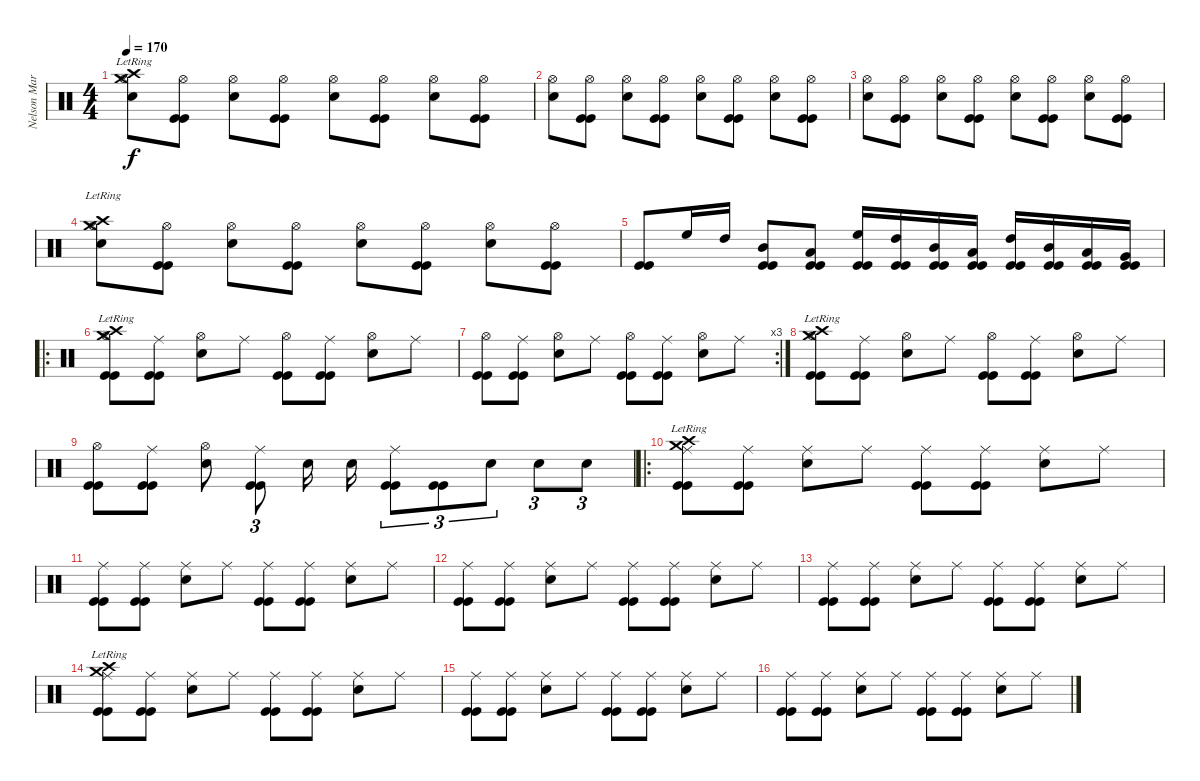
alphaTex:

\track ("Nelson Maria" "Nelson Mar") {instrument percussion}
\staff {score}
\articulation defaults
\ts (4 4)
\tempo 170
\clef neutral
\ks c
("Crash high (hit)"{lr} "Crash medium (hit)"{lr} "Snare (hit) 2" "Hi-Hat (open)").8{dy f} ("Hi-Hat (open)" "Kick (hit)" "Kick (hit)").8 ("Snare (hit) 2" "Hi-Hat (open)").8 ("Hi-Hat (open)" "Kick (hit)" "Kick (hit)").8 ("Snare (hit) 2" "Hi-Hat (open)").8 ("Hi-Hat (open)" "Kick (hit)" "Kick (hit)").8 ("Snare (hit) 2" "Hi-Hat (open)").8 ("Hi-Hat (open)" "Kick (hit)" "Kick (hit)").8 |
("Snare (hit) 2" "Hi-Hat (open)").8 ("Hi-Hat (open)" "Kick (hit)" "Kick (hit)").8 ("Snare (hit) 2" "Hi-Hat (open)").8 ("Hi-Hat (open)" "Kick (hit)" "Kick (hit)").8 ("Snare (hit) 2" "Hi-Hat (open)").8 ("Hi-Hat (open)" "Kick (hit)" "Kick (hit)").8 ("Snare (hit) 2" "Hi-Hat (open)").8 ("Hi-Hat (open)" "Kick (hit)" "Kick (hit)").8 |
("Snare (hit) 2" "Hi-Hat (open)").8 ("Hi-Hat (open)" "Kick (hit)" "Kick (hit)").8 ("Snare (hit) 2" "Hi-Hat (open)").8 ("Hi-Hat (open)" "Kick (hit)" "Kick (hit)").8 ("Snare (hit) 2" "Hi-Hat (open)").8 ("Hi-Hat (open)" "Kick (hit)" "Kick (hit)").8 ("Snare (hit) 2" "Hi-Hat (open)").8 ("Hi-Hat (open)" "Kick (hit)" "Kick (hit)").8 |
("Crash high (hit)"{lr} "Crash medium (hit)"{lr} "Snare (hit) 2" "Hi-Hat (open)").8 ("Hi-Hat (open)" "Kick (hit)" "Kick (hit)").8 ("Snare (hit) 2" "Hi-Hat (open)").8 ("Hi-Hat (open)" "Kick (hit)" "Kick (hit)").8 ("Snare (hit) 2" "Hi-Hat (open)").8 ("Hi-Hat (open)" "Kick (hit)" "Kick (hit)").8 ("Snare (hit) 2" "Hi-Hat (open)").8 ("Hi-Hat (open)" "Kick (hit)" "Kick (hit)").8 |
("Kick (hit)" "Kick (hit)").8 "High Floor Tom (hit)".16 "High Tom (hit)".16 ("Mid Tom (hit)" "Kick (hit)" "Kick (hit)").8 ("Low Tom (hit)" "Kick (hit)" "Kick (hit)").8 ("High Floor Tom (hit)" "Kick (hit)" "Kick (hit)").16 ("High Tom (hit)" "Kick (hit)" "Kick (hit)").16 ("Mid Tom (hit)" "Kick (hit)" "Kick (hit)").16 ("Low Tom (hit)" "Kick (hit)" "Kick (hit)").16 ("High Tom (hit)" "Kick (hit)" "Kick (hit)").16 ("Mid Tom (hit)" "Kick (hit)" "Kick (hit)").16 ("Low Tom (hit)" "Kick (hit)" "Kick (hit)").16 ("Very Low Tom (hit)" "Kick (hit)" "Kick (hit)").16 |
\ro
("Crash high (hit)"{lr} "Crash medium (hit)"{lr} "Hi-Hat (open)" "Kick (hit)" "Kick (hit)").8 ("Ride (middle)" "Kick (hit)" "Kick (hit)").8 ("Snare (hit) 2" "Hi-Hat (open)").8 "Ride (middle)".8 ("Hi-Hat (open)" "Kick (hit)" "Kick (hit)").8 ("Ride (middle)" "Kick (hit)" "Kick (hit)").8 ("Snare (hit) 2" "Hi-Hat (open)").8 "Ride (middle)".8 |
\rc 3
("Hi-Hat (open)" "Kick (hit)" "Kick (hit)").8 ("Ride (middle)" "Kick (hit)" "Kick (hit)").8 ("Snare (hit) 2" "Hi-Hat (open)").8 "Ride (middle)".8 ("Hi-Hat (open)" "Kick (hit)" "Kick (hit)").8 ("Ride (middle)" "Kick (hit)" "Kick (hit)").8 ("Snare (hit) 2" "Hi-Hat (open)").8 "Ride (middle)".8 |
("Crash high (hit)"{lr} "Crash medium (hit)"{lr} "Hi-Hat (open)" "Kick (hit)" "Kick (hit)").8 ("Ride (middle)" "Kick (hit)" "Kick (hit)").8 ("Snare (hit) 2" "Hi-Hat (open)").8 "Ride (middle)".8 ("Hi-Hat (open)" "Kick (hit)" "Kick (hit)").8 ("Ride (middle)" "Kick (hit)" "Kick (hit)").8 ("Snare (hit) 2" "Hi-Hat (open)").8 "Ride (middle)".8 |
("Hi-Hat (open)" "Kick (hit)" "Kick (hit)").8 ("Ride (middle)" "Kick (hit)" "Kick (hit)").8 ("Snare (hit) 2" "Hi-Hat (open)").8 ("Ride (middle)" "Kick (hit)" "Kick (hit)").8{tu (3 2)} "Snare (hit) 2".16 "Snare (hit) 2".16 ("Ride (middle)" "Kick (hit)" "Kick (hit)").8{tu (3 2)} ("Kick (hit)" "Kick (hit)").8{tu (3 2)} "Snare (hit) 2".8{tu (3 2)} "Snare (hit) 2".8{tu (3 2)} "Snare (hit) 2".8{tu (3 2)} |
\ro
("Crash high (hit)"{lr} "Crash medium (hit)"{lr} "Ride (middle)" "Kick (hit)" "Kick (hit)").8 ("Ride (middle)" "Kick (hit)" "Kick (hit)").8 ("Snare (hit) 2" "Ride (middle)").8 "Ride (middle)".8 ("Ride (middle)" "Kick (hit)" "Kick (hit)").8 ("Ride (middle)" "Kick (hit)" "Kick (hit)").8 ("Snare (hit) 2" "Ride (middle)").8 "Ride (middle)".8 |
("Ride (middle)" "Kick (hit)" "Kick (hit)").8 ("Ride (middle)" "Kick (hit)" "Kick (hit)").8 ("Snare (hit) 2" "Ride (middle)").8 "Ride (middle)".8 ("Ride (middle)" "Kick (hit)" "Kick (hit)").8 ("Ride (middle)" "Kick (hit)" "Kick (hit)").8 ("Snare (hit) 2" "Ride (middle)").8 "Ride (middle)".8 |
("Ride (middle)" "Kick (hit)" "Kick (hit)").8 ("Ride (middle)" "Kick (hit)" "Kick (hit)").8 ("Snare (hit) 2" "Ride (middle)").8 "Ride (middle)".8 ("Ride (middle)" "Kick (hit)" "Kick (hit)").8 ("Ride (middle)" "Kick (hit)" "Kick (hit)").8 ("Snare (hit) 2" "Ride (middle)").8 "Ride (middle)".8 |
("Ride (middle)" "Kick (hit)" "Kick (hit)").8 ("Ride (middle)" "Kick (hit)" "Kick (hit)").8 ("Snare (hit) 2" "Ride (middle)").8 "Ride (middle)".8 ("Ride (middle)" "Kick (hit)" "Kick (hit)").8 ("Ride (middle)" "Kick (hit)" "Kick (hit)").8 ("Snare (hit) 2" "Ride (middle)").8 "Ride (middle)".8 |
("Crash high (hit)"{lr} "Crash medium (hit)"{lr} "Ride (middle)" "Kick (hit)" "Kick (hit)").8 ("Ride (middle)" "Kick (hit)" "Kick (hit)").8 ("Snare (hit) 2" "Ride (middle)").8 "Ride (middle)".8 ("Ride (middle)" "Kick (hit)" "Kick (hit)").8 ("Ride (middle)" "Kick (hit)" "Kick (hit)").8 ("Snare (hit) 2" "Ride (middle)").8 "Ride (middle)".8 |
("Ride (middle)" "Kick (hit)" "Kick (hit)").8 ("Ride (middle)" "Kick (hit)" "Kick (hit)").8 ("Snare (hit) 2" "Ride (middle)").8 "Ride (middle)".8 ("Ride (middle)" "Kick (hit)" "Kick (hit)").8 ("Ride (middle)" "Kick (hit)" "Kick (hit)").8 ("Snare (hit) 2" "Ride (middle)").8 "Ride (middle)".8 |
("Ride (middle)" "Kick (hit)" "Kick (hit)").8 ("Ride (middle)" "Kick (hit)" "Kick (hit)").8 ("Snare (hit) 2" "Ride (middle)").8 "Ride (middle)".8 ("Ride (middle)" "Kick (hit)" "Kick (hit)").8 ("Ride (middle)" "Kick (hit)" "Kick (hit)").8 ("Snare (hit) 2" "Ride (middle)").8 "Ride (middle)".8
